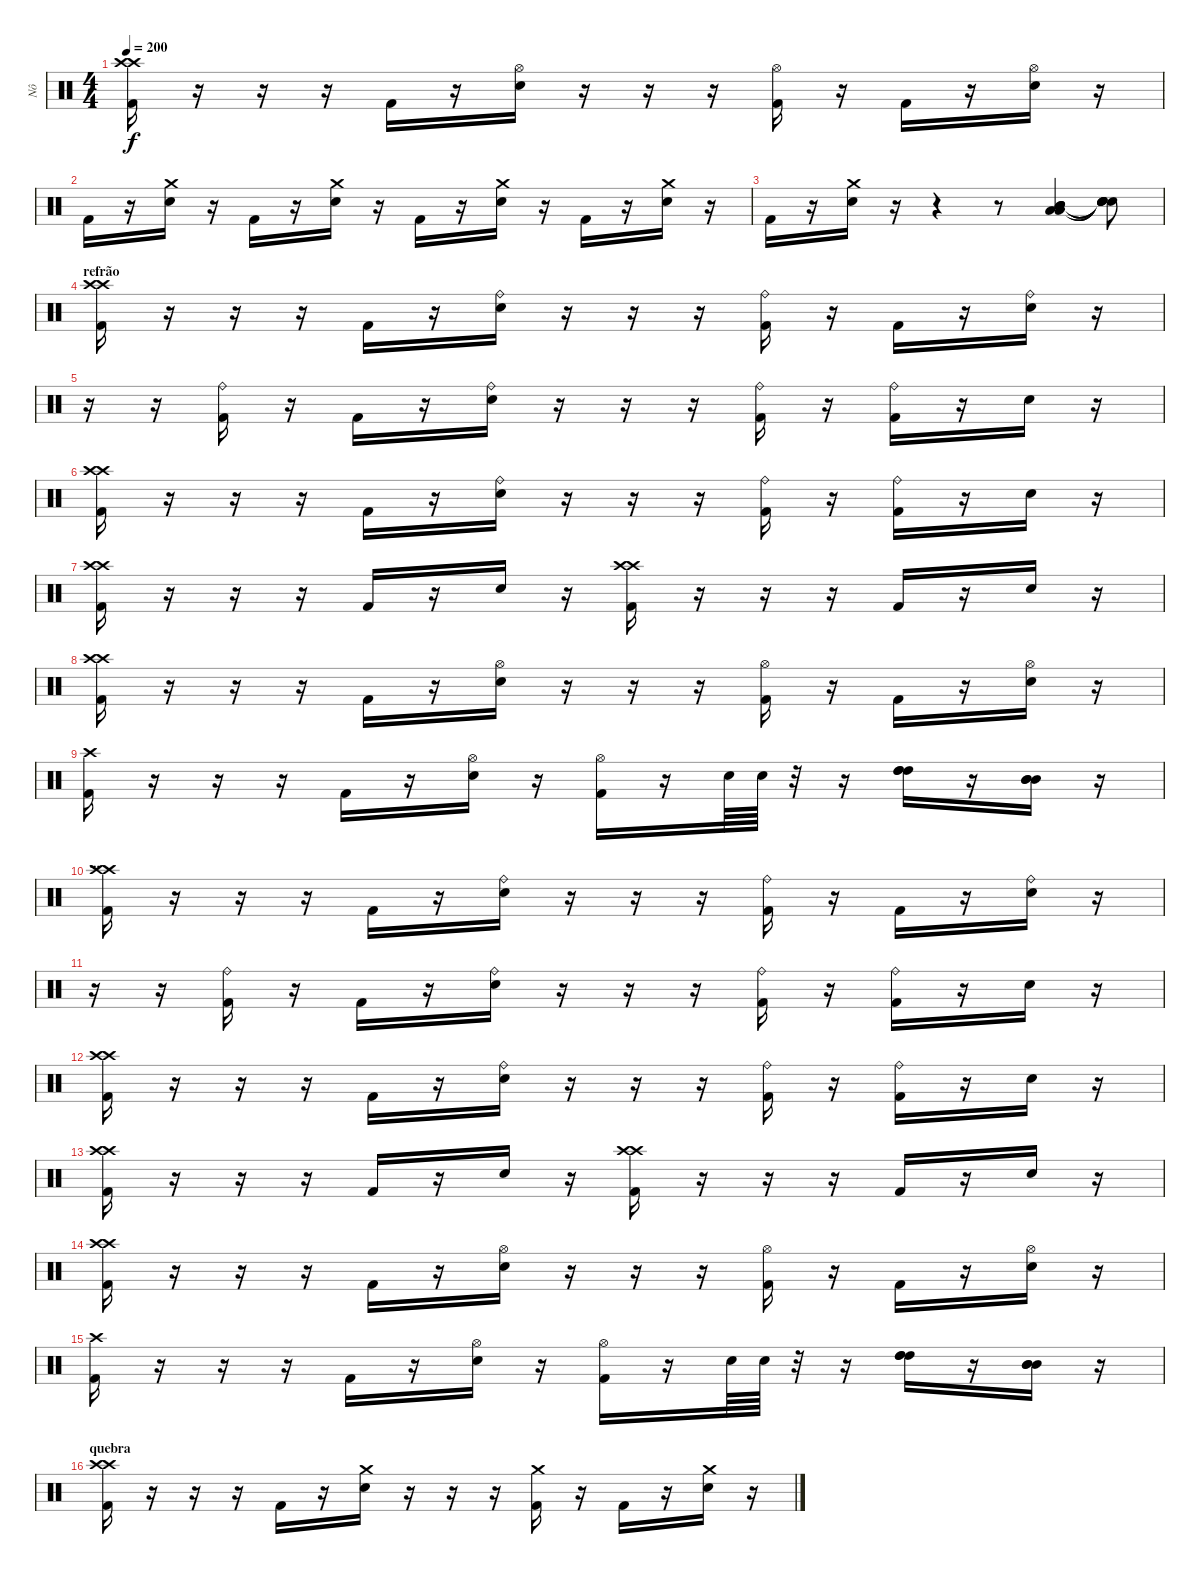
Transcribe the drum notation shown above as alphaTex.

\track ("Nô" "Nô") {instrument percussion}
\staff {score}
\articulation defaults
\ts (4 4)
\tempo 200
\clef neutral
\ks c
("Crash high (hit)" "Crash high (hit)" "Kick (hit) 2").16{dy f} r.16 r.16 r.16 "Kick (hit) 2".16 r.16 ("Hi-Hat (open)" "Electric Snare (hit)").16 r.16 r.16 r.16 ("Hi-Hat (open)" "Kick (hit) 2").16 r.16 "Kick (hit) 2".16 r.16 ("Hi-Hat (open)" "Electric Snare (hit)").16 r.16 |
"Kick (hit) 2".16 r.16 ("Crash medium (hit)" "Electric Snare (hit)").16 r.16 "Kick (hit) 2".16 r.16 ("Crash medium (hit)" "Electric Snare (hit)").16 r.16 "Kick (hit) 2".16 r.16 ("Crash medium (hit)" "Electric Snare (hit)").16 r.16 "Kick (hit) 2".16 r.16 ("Crash medium (hit)" "Electric Snare (hit)").16 r.16 |
"Kick (hit) 2".16 r.16 ("Crash medium (hit)" "Electric Snare (hit)").16 r.16 r.4 r.8 ("Mid Tom (hit)" "Mid Tom (hit)" "Mid Tom (hit)" "Low Tom (hit)" "Low Tom (hit)").4 ("Snare (hit)"{t} "Snare (hit)"{t} "Snare (hit)"{t} "Snare (hit)"{t} "Snare (hit)"{t}).8 |
\section ("" "refrão")
("Crash high (hit)" "Crash high (hit)" "Kick (hit) 2").16 r.16 r.16 r.16 "Kick (hit) 2".16 r.16 ("Ride (bell)" "Electric Snare (hit)").16 r.16 r.16 r.16 ("Ride (bell)" "Kick (hit) 2").16 r.16 "Kick (hit) 2".16 r.16 ("Ride (bell)" "Electric Snare (hit)").16 r.16 |
r.16 r.16 ("Ride (bell)" "Kick (hit) 2").16 r.16 "Kick (hit) 2".16 r.16 ("Ride (bell)" "Electric Snare (hit)").16 r.16 r.16 r.16 ("Ride (bell)" "Kick (hit) 2").16 r.16 ("Ride (bell)" "Kick (hit) 2").16 r.16 "Electric Snare (hit)".16 r.16 |
("Crash high (hit)" "Crash high (hit)" "Kick (hit) 2").16 r.16 r.16 r.16 "Kick (hit) 2".16 r.16 ("Ride (bell)" "Electric Snare (hit)").16 r.16 r.16 r.16 ("Ride (bell)" "Kick (hit) 2").16 r.16 ("Ride (bell)" "Kick (hit) 2").16 r.16 "Electric Snare (hit)".16 r.16 |
("Crash high (hit)" "Crash high (hit)" "Kick (hit) 2").16 r.16 r.16 r.16 "Kick (hit) 2".16 r.16 "Electric Snare (hit)".16 r.16 ("Crash high (hit)" "Crash high (hit)" "Kick (hit) 2").16 r.16 r.16 r.16 "Kick (hit) 2".16 r.16 "Electric Snare (hit)".16 r.16 |
("Crash high (hit)" "Crash high (hit)" "Kick (hit) 2").16 r.16 r.16 r.16 "Kick (hit) 2".16 r.16 ("Hi-Hat (open)" "Electric Snare (hit)").16 r.16 r.16 r.16 ("Hi-Hat (open)" "Kick (hit) 2").16 r.16 "Kick (hit) 2".16 r.16 ("Hi-Hat (open)" "Electric Snare (hit)").16 r.16 |
("Crash high (hit)" "Kick (hit) 2").16 r.16 r.16 r.16 "Kick (hit) 2".16 r.16 ("Hi-Hat (open)" "Electric Snare (hit)").16 r.16 ("Hi-Hat (open)" "Kick (hit) 2").16 r.16 "Electric Snare (hit)".64 "Electric Snare (hit)".64 r.32 r.16 ("High Tom (hit)" "High Tom (hit)" "High Tom (hit)").16 r.16 ("Mid Tom (hit)" "Mid Tom (hit)" "Mid Tom (hit)").16 r.16 |
\section ("" "...")
("Crash high (hit)" "Crash high (hit)" "Kick (hit) 2").16 r.16 r.16 r.16 "Kick (hit) 2".16 r.16 ("Ride (bell)" "Electric Snare (hit)").16 r.16 r.16 r.16 ("Ride (bell)" "Kick (hit) 2").16 r.16 "Kick (hit) 2".16 r.16 ("Ride (bell)" "Electric Snare (hit)").16 r.16 |
r.16 r.16 ("Ride (bell)" "Kick (hit) 2").16 r.16 "Kick (hit) 2".16 r.16 ("Ride (bell)" "Electric Snare (hit)").16 r.16 r.16 r.16 ("Ride (bell)" "Kick (hit) 2").16 r.16 ("Ride (bell)" "Kick (hit) 2").16 r.16 "Electric Snare (hit)".16 r.16 |
("Crash high (hit)" "Crash high (hit)" "Kick (hit) 2").16 r.16 r.16 r.16 "Kick (hit) 2".16 r.16 ("Ride (bell)" "Electric Snare (hit)").16 r.16 r.16 r.16 ("Ride (bell)" "Kick (hit) 2").16 r.16 ("Ride (bell)" "Kick (hit) 2").16 r.16 "Electric Snare (hit)".16 r.16 |
("Crash high (hit)" "Crash high (hit)" "Kick (hit) 2").16 r.16 r.16 r.16 "Kick (hit) 2".16 r.16 "Electric Snare (hit)".16 r.16 ("Crash high (hit)" "Crash high (hit)" "Kick (hit) 2").16 r.16 r.16 r.16 "Kick (hit) 2".16 r.16 "Electric Snare (hit)".16 r.16 |
("Crash high (hit)" "Crash high (hit)" "Kick (hit) 2").16 r.16 r.16 r.16 "Kick (hit) 2".16 r.16 ("Hi-Hat (open)" "Electric Snare (hit)").16 r.16 r.16 r.16 ("Hi-Hat (open)" "Kick (hit) 2").16 r.16 "Kick (hit) 2".16 r.16 ("Hi-Hat (open)" "Electric Snare (hit)").16 r.16 |
("Crash high (hit)" "Kick (hit) 2").16 r.16 r.16 r.16 "Kick (hit) 2".16 r.16 ("Hi-Hat (open)" "Electric Snare (hit)").16 r.16 ("Hi-Hat (open)" "Kick (hit) 2").16 r.16 "Electric Snare (hit)".64 "Electric Snare (hit)".64 r.32 r.16 ("High Tom (hit)" "High Tom (hit)" "High Tom (hit)").16 r.16 ("Mid Tom (hit)" "Mid Tom (hit)" "Mid Tom (hit)").16 r.16 |
\section ("" "quebra")
("Crash high (hit)" "Crash high (hit)" "Kick (hit) 2").16 r.16 r.16 r.16 "Kick (hit) 2".16 r.16 ("Crash medium (hit)" "Electric Snare (hit)").16 r.16 r.16 r.16 ("Crash medium (hit)" "Kick (hit) 2").16 r.16 "Kick (hit) 2".16 r.16 ("Crash medium (hit)" "Electric Snare (hit)").16 r.16
